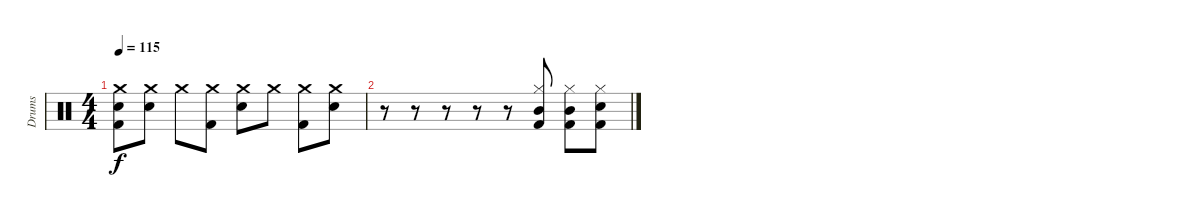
\track ("Drums" "Drums") {instrument percussion}
\staff {score}
\articulation defaults
\ts (4 4)
\tempo 115
\clef neutral
\ks c
("Kick (hit) 2" "Electric Snare (hit)" "Crash medium (hit)").8{dy f} ("Electric Snare (hit)" "Crash medium (hit)").8 "Crash medium (hit)".8 ("Kick (hit) 2" "Crash medium (hit)").8 ("Electric Snare (hit)" "Crash medium (hit)").8 "Crash medium (hit)".8 ("Kick (hit) 2" "Crash medium (hit)").8 ("Electric Snare (hit)" "Crash medium (hit)").8 |
r.8 r.8 r.8 r.8 r.8 ("Kick (hit) 2" "Hi-Hat (closed)" "Mid Tom (hit)").8 ("Kick (hit) 2" "Hi-Hat (closed)" "Mid Tom (hit)").8 ("Kick (hit) 2" "Electric Snare (hit)" "Hi-Hat (closed)").8
